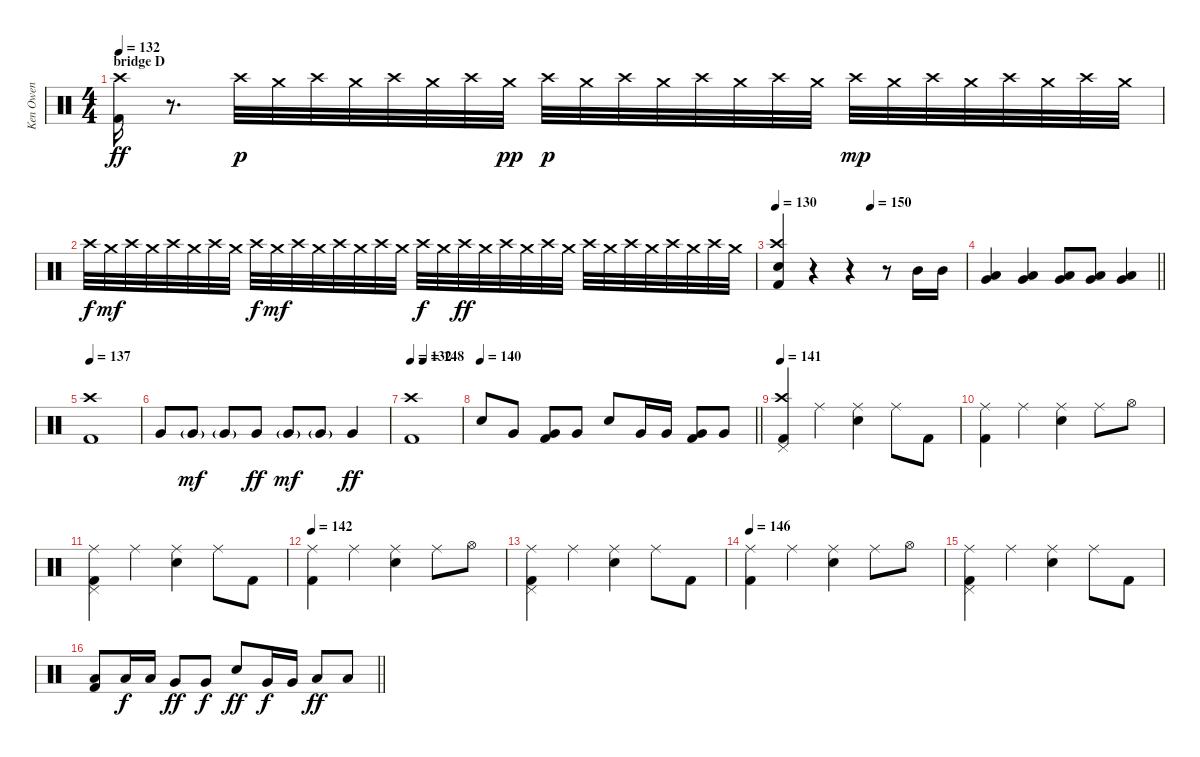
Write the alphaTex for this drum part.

\track ("Ken Owen" "Ken Owen") {instrument percussion}
\staff {score}
\articulation defaults
\ts (4 4)
\section ("" "bridge D")
\tempo 132
\clef neutral
\ks c
("Kick (hit) 2" "Crash high (hit)").16{dy ff} r.8{d} "Crash high (hit)".32{dy p} "Crash medium (hit)".32 "Crash high (hit)".32 "Crash medium (hit)".32 "Crash high (hit)".32 "Crash medium (hit)".32 "Crash high (hit)".32 "Crash medium (hit)".32{dy pp} "Crash high (hit)".32{dy p} "Crash medium (hit)".32 "Crash high (hit)".32 "Crash medium (hit)".32 "Crash high (hit)".32 "Crash medium (hit)".32 "Crash high (hit)".32 "Crash medium (hit)".32 "Crash high (hit)".32{dy mp} "Crash medium (hit)".32 "Crash high (hit)".32 "Crash medium (hit)".32 "Crash high (hit)".32 "Crash medium (hit)".32 "Crash high (hit)".32 "Crash medium (hit)".32 |
"Crash high (hit)".32{dy f} "Crash medium (hit)".32{dy mf} "Crash high (hit)".32 "Crash medium (hit)".32 "Crash high (hit)".32 "Crash medium (hit)".32 "Crash high (hit)".32 "Crash medium (hit)".32 "Crash high (hit)".32{dy f} "Crash medium (hit)".32{dy mf} "Crash high (hit)".32 "Crash medium (hit)".32 "Crash high (hit)".32 "Crash medium (hit)".32 "Crash high (hit)".32 "Crash medium (hit)".32 "Crash high (hit)".32{dy f} "Crash medium (hit)".32 "Crash high (hit)".32{dy ff} "Crash medium (hit)".32 "Crash high (hit)".32 "Crash medium (hit)".32 "Crash high (hit)".32 "Crash medium (hit)".32 "Crash high (hit)".32 "Crash medium (hit)".32 "Crash high (hit)".32 "Crash medium (hit)".32 "Crash high (hit)".32 "Crash medium (hit)".32 "Crash high (hit)".32 "Crash medium (hit)".32 |
\tempo 130
\tempo (150 0.5)
("Crash high (hit)" "Snare (hit) 2" "Kick (hit) 2").4 r.4 r.4 r.8 "Mid Tom (hit)".16 "Mid Tom (hit)".16 |
\barLineRight lightlight
("Low Tom (hit)" "Very Low Tom (hit)").4 ("Low Tom (hit)" "Very Low Tom (hit)").4 ("Very Low Tom (hit)" "Low Floor Tom (hit)").8 ("Very Low Tom (hit)" "Low Floor Tom (hit)").8 ("Very Low Tom (hit)" "Low Floor Tom (hit)").4 |
\tempo 137
("Crash high (hit)" "Kick (hit) 2").1 |
"Very Low Tom (hit)".8 "Very Low Tom (hit)"{g}.8{dy mf} "Very Low Tom (hit)"{g}.8 "Very Low Tom (hit)".8{dy ff} "Very Low Tom (hit)"{g}.8{dy mf} "Very Low Tom (hit)"{g}.8 "Very Low Tom (hit)".4{dy ff} |
\tempo 132
\tempo (148 0.25)
("Crash high (hit)" "Kick (hit) 2").1 |
\tempo 140
\barLineRight lightlight "Snare (hit) 2".8 "Very Low Tom (hit)".8
("Very Low Tom (hit)" "Kick (hit) 2").8 "Very Low Tom (hit)".8 "Snare (hit) 2".8 "Very Low Tom (hit)".16 "Very Low Tom (hit)".16 ("Very Low Tom (hit)" "Kick (hit) 2").8 "Very Low Tom (hit)".8 |
\tempo 141
("Crash high (hit)" "Pedal Hi-Hat (hit)" "Kick (hit) 2").4 "Ride (middle)".4 ("Ride (middle)" "Snare (hit) 2").4 "Ride (middle)".8 "Kick (hit) 2".8 |
("Ride (middle)" "Kick (hit) 2").4 "Ride (middle)".4 ("Ride (middle)" "Snare (hit) 2").4 "Ride (middle)".8 "Hi-Hat (open)".8 |
("Ride (middle)" "Pedal Hi-Hat (hit)" "Kick (hit) 2").4 "Ride (middle)".4 ("Ride (middle)" "Snare (hit) 2").4 "Ride (middle)".8 "Kick (hit) 2".8 |
\tempo 142
("Ride (middle)" "Kick (hit) 2").4 "Ride (middle)".4 ("Ride (middle)" "Snare (hit) 2").4 "Ride (middle)".8 "Hi-Hat (open)".8 |
("Ride (middle)" "Pedal Hi-Hat (hit)" "Kick (hit) 2").4 "Ride (middle)".4 ("Ride (middle)" "Snare (hit) 2").4 "Ride (middle)".8 "Kick (hit) 2".8 |
\tempo 146
("Ride (middle)" "Kick (hit) 2").4 "Ride (middle)".4 ("Ride (middle)" "Snare (hit) 2").4 "Ride (middle)".8 "Hi-Hat (open)".8 |
("Ride (middle)" "Pedal Hi-Hat (hit)" "Kick (hit) 2").4 "Ride (middle)".4 ("Ride (middle)" "Snare (hit) 2").4 "Ride (middle)".8 "Kick (hit) 2".8 |
\barLineRight lightlight
("Low Tom (hit)" "Kick (hit) 2").8 "Low Tom (hit)".16{dy f} "Low Tom (hit)".16 "Very Low Tom (hit)".8{dy ff} "Very Low Tom (hit)".8{dy f} "Snare (hit) 2".8{dy ff} "Very Low Tom (hit)".16{dy f} "Very Low Tom (hit)".16 "Low Floor Tom (hit)".8{dy ff} "Low Floor Tom (hit)".8
